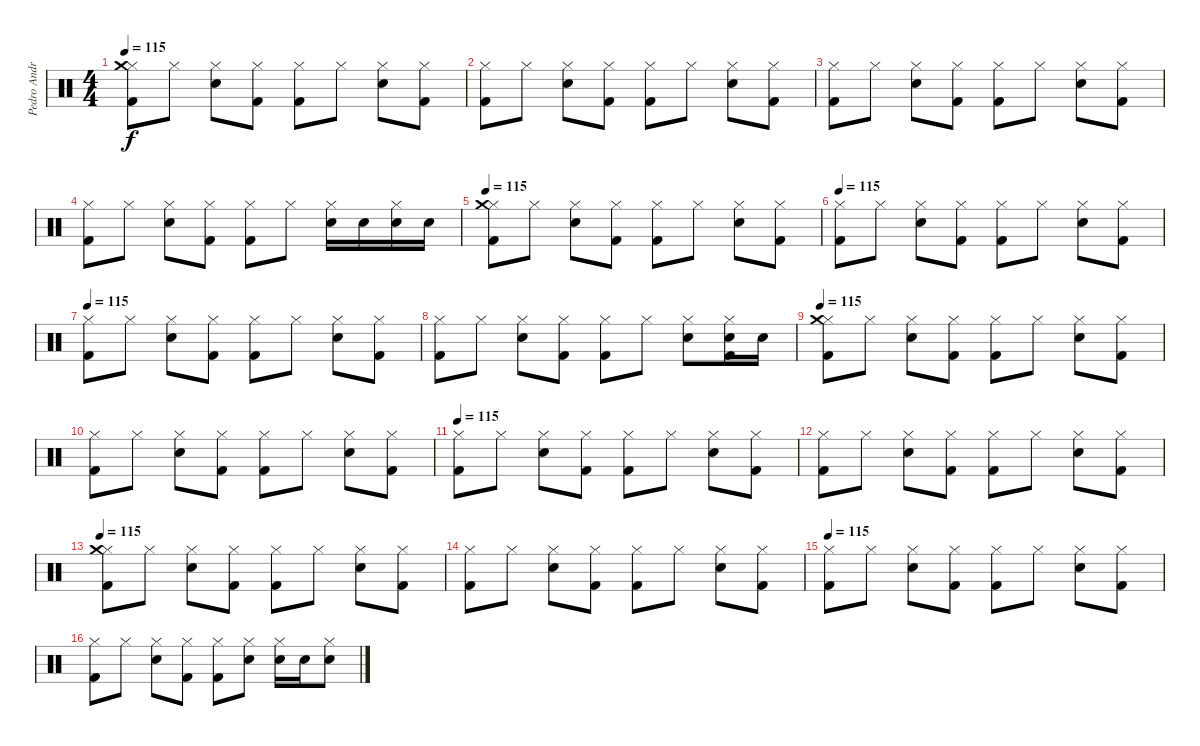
\track ("Pedro Andreu" "Pedro Andr") {instrument percussion}
\staff {score}
\articulation defaults
\ts (4 4)
\tempo 115
\clef neutral
\ks c
("Hi-Hat (closed)" "Crash medium (hit)" "Kick (hit) 2").8{dy f} "Hi-Hat (closed)".8 ("Hi-Hat (closed)" "Snare (hit) 2").8 ("Hi-Hat (closed)" "Kick (hit) 2").8 ("Hi-Hat (closed)" "Kick (hit) 2").8 "Hi-Hat (closed)".8 ("Hi-Hat (closed)" "Snare (hit) 2").8 ("Hi-Hat (closed)" "Kick (hit) 2").8 |
("Hi-Hat (closed)" "Kick (hit) 2").8 "Hi-Hat (closed)".8 ("Hi-Hat (closed)" "Snare (hit) 2").8 ("Hi-Hat (closed)" "Kick (hit) 2").8 ("Hi-Hat (closed)" "Kick (hit) 2").8 "Hi-Hat (closed)".8 ("Hi-Hat (closed)" "Snare (hit) 2").8 ("Hi-Hat (closed)" "Kick (hit) 2").8 |
("Hi-Hat (closed)" "Kick (hit) 2").8 "Hi-Hat (closed)".8 ("Hi-Hat (closed)" "Snare (hit) 2").8 ("Hi-Hat (closed)" "Kick (hit) 2").8 ("Hi-Hat (closed)" "Kick (hit) 2").8 "Hi-Hat (closed)".8 ("Hi-Hat (closed)" "Snare (hit) 2").8 ("Hi-Hat (closed)" "Kick (hit) 2").8 |
("Hi-Hat (closed)" "Kick (hit) 2").8 "Hi-Hat (closed)".8 ("Hi-Hat (closed)" "Snare (hit) 2").8 ("Hi-Hat (closed)" "Kick (hit) 2").8 ("Hi-Hat (closed)" "Kick (hit) 2").8 "Hi-Hat (closed)".8 ("Snare (hit) 2" "Hi-Hat (closed)").16 "Snare (hit) 2".16 ("Snare (hit) 2" "Hi-Hat (closed)").16 "Snare (hit) 2".16 |
\tempo 115
("Hi-Hat (closed)" "Crash medium (hit)" "Kick (hit) 2").8 "Hi-Hat (closed)".8 ("Hi-Hat (closed)" "Snare (hit) 2").8 ("Hi-Hat (closed)" "Kick (hit) 2").8 ("Hi-Hat (closed)" "Kick (hit) 2").8 "Hi-Hat (closed)".8 ("Hi-Hat (closed)" "Snare (hit) 2").8 ("Hi-Hat (closed)" "Kick (hit) 2").8 |
\tempo 115
("Hi-Hat (closed)" "Kick (hit) 2").8 "Hi-Hat (closed)".8 ("Hi-Hat (closed)" "Snare (hit) 2").8 ("Hi-Hat (closed)" "Kick (hit) 2").8 ("Hi-Hat (closed)" "Kick (hit) 2").8 "Hi-Hat (closed)".8 ("Hi-Hat (closed)" "Snare (hit) 2").8 ("Hi-Hat (closed)" "Kick (hit) 2").8 |
\tempo 115
("Hi-Hat (closed)" "Kick (hit) 2").8 "Hi-Hat (closed)".8 ("Hi-Hat (closed)" "Snare (hit) 2").8 ("Hi-Hat (closed)" "Kick (hit) 2").8 ("Hi-Hat (closed)" "Kick (hit) 2").8 "Hi-Hat (closed)".8 ("Hi-Hat (closed)" "Snare (hit) 2").8 ("Hi-Hat (closed)" "Kick (hit) 2").8 |
("Hi-Hat (closed)" "Kick (hit) 2").8 "Hi-Hat (closed)".8 ("Hi-Hat (closed)" "Snare (hit) 2").8 ("Hi-Hat (closed)" "Kick (hit) 2").8 ("Hi-Hat (closed)" "Kick (hit) 2").8 "Hi-Hat (closed)".8 ("Hi-Hat (closed)" "Snare (hit) 2").8 ("Snare (hit) 2" "Hi-Hat (closed)" "Kick (hit) 2").16 "Snare (hit) 2".16 |
\tempo 115
("Hi-Hat (closed)" "Crash medium (hit)" "Kick (hit) 2").8 "Hi-Hat (closed)".8 ("Hi-Hat (closed)" "Snare (hit) 2").8 ("Hi-Hat (closed)" "Kick (hit) 2").8 ("Hi-Hat (closed)" "Kick (hit) 2").8 "Hi-Hat (closed)".8 ("Hi-Hat (closed)" "Snare (hit) 2").8 ("Hi-Hat (closed)" "Kick (hit) 2").8 |
("Hi-Hat (closed)" "Kick (hit) 2").8 "Hi-Hat (closed)".8 ("Hi-Hat (closed)" "Snare (hit) 2").8 ("Hi-Hat (closed)" "Kick (hit) 2").8 ("Hi-Hat (closed)" "Kick (hit) 2").8 "Hi-Hat (closed)".8 ("Hi-Hat (closed)" "Snare (hit) 2").8 ("Hi-Hat (closed)" "Kick (hit) 2").8 |
\tempo 115
("Hi-Hat (closed)" "Kick (hit) 2").8 "Hi-Hat (closed)".8 ("Hi-Hat (closed)" "Snare (hit) 2").8 ("Hi-Hat (closed)" "Kick (hit) 2").8 ("Hi-Hat (closed)" "Kick (hit) 2").8 "Hi-Hat (closed)".8 ("Hi-Hat (closed)" "Snare (hit) 2").8 ("Hi-Hat (closed)" "Kick (hit) 2").8 |
("Hi-Hat (closed)" "Kick (hit) 2").8 "Hi-Hat (closed)".8 ("Hi-Hat (closed)" "Snare (hit) 2").8 ("Hi-Hat (closed)" "Kick (hit) 2").8 ("Hi-Hat (closed)" "Kick (hit) 2").8 "Hi-Hat (closed)".8 ("Hi-Hat (closed)" "Snare (hit) 2").8 ("Hi-Hat (closed)" "Kick (hit) 2").8 |
\tempo 115
("Hi-Hat (closed)" "Crash medium (hit)" "Kick (hit) 2").8 "Hi-Hat (closed)".8 ("Hi-Hat (closed)" "Snare (hit) 2").8 ("Hi-Hat (closed)" "Kick (hit) 2").8 ("Hi-Hat (closed)" "Kick (hit) 2").8 "Hi-Hat (closed)".8 ("Hi-Hat (closed)" "Snare (hit) 2").8 ("Hi-Hat (closed)" "Kick (hit) 2").8 |
("Hi-Hat (closed)" "Kick (hit) 2").8 "Hi-Hat (closed)".8 ("Hi-Hat (closed)" "Snare (hit) 2").8 ("Hi-Hat (closed)" "Kick (hit) 2").8 ("Hi-Hat (closed)" "Kick (hit) 2").8 "Hi-Hat (closed)".8 ("Hi-Hat (closed)" "Snare (hit) 2").8 ("Hi-Hat (closed)" "Kick (hit) 2").8 |
\tempo 115
("Hi-Hat (closed)" "Kick (hit) 2").8 "Hi-Hat (closed)".8 ("Hi-Hat (closed)" "Snare (hit) 2").8 ("Hi-Hat (closed)" "Kick (hit) 2").8 ("Hi-Hat (closed)" "Kick (hit) 2").8 "Hi-Hat (closed)".8 ("Hi-Hat (closed)" "Snare (hit) 2").8 ("Hi-Hat (closed)" "Kick (hit) 2").8 |
("Hi-Hat (closed)" "Kick (hit) 2").8 "Hi-Hat (closed)".8 ("Hi-Hat (closed)" "Snare (hit) 2").8 ("Hi-Hat (closed)" "Kick (hit) 2").8 ("Hi-Hat (closed)" "Kick (hit) 2").8 ("Snare (hit) 2" "Hi-Hat (closed)").8 ("Snare (hit) 2" "Hi-Hat (closed)").16 "Snare (hit) 2".16 ("Snare (hit) 2" "Hi-Hat (closed)").8
